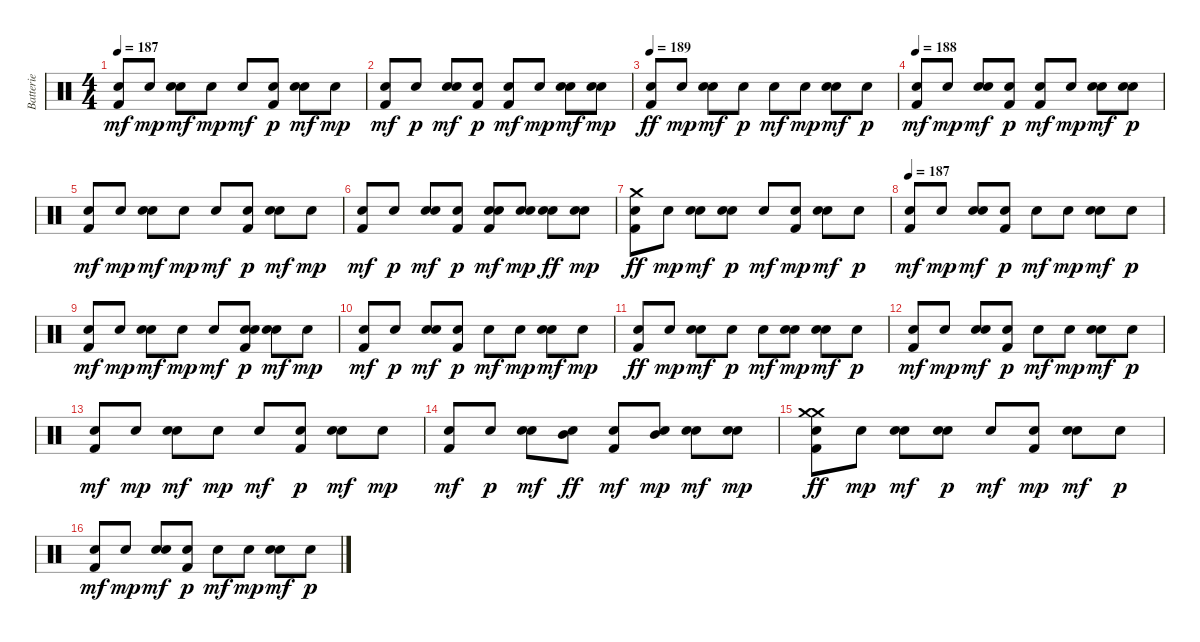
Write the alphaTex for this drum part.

\track ("Batterie            " "Batterie  ") {instrument percussion}
\staff {score}
\articulation defaults
\ts (4 4)
\tempo 187
\clef neutral
\ks c
("Kick (hit) 2" "Snare (hit) 2").8{dy mf} "Snare (hit) 2".8{dy mp} ("Hand Clap (hit)" "Snare (hit) 2").8{dy mf} "Snare (hit) 2".8{dy mp} "Snare (hit) 2".8{dy mf} ("Kick (hit) 2" "Snare (hit) 2").8{dy p} ("Hand Clap (hit)" "Snare (hit) 2").8{dy mf} "Snare (hit) 2".8{dy mp} |
("Kick (hit) 2" "Snare (hit) 2").8{dy mf} "Snare (hit) 2".8{dy p} ("Hand Clap (hit)" "Snare (hit) 2").8{dy mf} ("Kick (hit) 2" "Snare (hit) 2").8{dy p} ("Kick (hit) 2" "Snare (hit) 2").8{dy mf} "Snare (hit) 2".8{dy mp} ("Hand Clap (hit)" "Snare (hit) 2").8{dy mf} ("Hand Clap (hit)" "Snare (hit) 2").8{dy mp} |
\tempo 189
("Kick (hit) 2" "Snare (hit) 2").8{dy ff} "Snare (hit) 2".8{dy mp} ("Hand Clap (hit)" "Snare (hit) 2").8{dy mf} "Snare (hit) 2".8{dy p} "Snare (hit) 2".8{dy mf} "Snare (hit) 2".8{dy mp} ("Hand Clap (hit)" "Snare (hit) 2").8{dy mf} "Snare (hit) 2".8{dy p} |
\tempo 188
("Kick (hit) 2" "Snare (hit) 2").8{dy mf} "Snare (hit) 2".8{dy mp} ("Hand Clap (hit)" "Snare (hit) 2").8{dy mf} ("Kick (hit) 2" "Snare (hit) 2").8{dy p} ("Kick (hit) 2" "Snare (hit) 2").8{dy mf} "Snare (hit) 2".8{dy mp} ("Hand Clap (hit)" "Snare (hit) 2").8{dy mf} ("Hand Clap (hit)" "Snare (hit) 2").8{dy p} |
("Kick (hit) 2" "Snare (hit) 2").8{dy mf} "Snare (hit) 2".8{dy mp} ("Hand Clap (hit)" "Snare (hit) 2").8{dy mf} "Snare (hit) 2".8{dy mp} "Snare (hit) 2".8{dy mf} ("Kick (hit) 2" "Snare (hit) 2").8{dy p} ("Hand Clap (hit)" "Snare (hit) 2").8{dy mf} "Snare (hit) 2".8{dy mp} |
("Kick (hit) 2" "Snare (hit) 2").8{dy mf} "Snare (hit) 2".8{dy p} ("Hand Clap (hit)" "Snare (hit) 2").8{dy mf} ("Kick (hit) 2" "Snare (hit) 2").8{dy p} ("Hand Clap (hit)" "Kick (hit) 2" "Snare (hit) 2").8{dy mf} ("Hand Clap (hit)" "Snare (hit) 2").8{dy mp} ("Hand Clap (hit)" "Snare (hit) 2").8{dy ff} ("Hand Clap (hit)" "Snare (hit) 2").8{dy mp} |
("Crash medium (hit)" "Kick (hit) 2" "Snare (hit) 2").8{dy ff} "Snare (hit) 2".8{dy mp} ("Hand Clap (hit)" "Snare (hit) 2").8{dy mf} ("Hand Clap (hit)" "Snare (hit) 2").8{dy p} "Snare (hit) 2".8{dy mf} ("Kick (hit) 2" "Snare (hit) 2").8{dy mp} ("Hand Clap (hit)" "Snare (hit) 2").8{dy mf} "Snare (hit) 2".8{dy p} |
\tempo 187
("Kick (hit) 2" "Snare (hit) 2").8{dy mf} "Snare (hit) 2".8{dy mp} ("Hand Clap (hit)" "Snare (hit) 2").8{dy mf} ("Kick (hit) 2" "Snare (hit) 2").8{dy p} "Snare (hit) 2".8{dy mf} "Snare (hit) 2".8{dy mp} ("Hand Clap (hit)" "Snare (hit) 2").8{dy mf} "Snare (hit) 2".8{dy p} |
("Kick (hit) 2" "Snare (hit) 2").8{dy mf} "Snare (hit) 2".8{dy mp} ("Hand Clap (hit)" "Snare (hit) 2").8{dy mf} "Snare (hit) 2".8{dy mp} "Snare (hit) 2".8{dy mf} ("Hand Clap (hit)" "Kick (hit) 2" "Snare (hit) 2").8{dy p} ("Hand Clap (hit)" "Snare (hit) 2").8{dy mf} "Snare (hit) 2".8{dy mp} |
("Kick (hit) 2" "Snare (hit) 2").8{dy mf} "Snare (hit) 2".8{dy p} ("Hand Clap (hit)" "Snare (hit) 2").8{dy mf} ("Kick (hit) 2" "Snare (hit) 2").8{dy p} "Snare (hit) 2".8{dy mf} "Snare (hit) 2".8{dy mp} ("Hand Clap (hit)" "Snare (hit) 2").8{dy mf} "Snare (hit) 2".8{dy mp} |
("Kick (hit) 2" "Snare (hit) 2").8{dy ff} "Snare (hit) 2".8{dy mp} ("Hand Clap (hit)" "Snare (hit) 2").8{dy mf} "Snare (hit) 2".8{dy p} "Snare (hit) 2".8{dy mf} ("Hand Clap (hit)" "Snare (hit) 2").8{dy mp} ("Hand Clap (hit)" "Snare (hit) 2").8{dy mf} "Snare (hit) 2".8{dy p} |
("Kick (hit) 2" "Snare (hit) 2").8{dy mf} "Snare (hit) 2".8{dy mp} ("Hand Clap (hit)" "Snare (hit) 2").8{dy mf} ("Kick (hit) 2" "Snare (hit) 2").8{dy p} "Snare (hit) 2".8{dy mf} "Snare (hit) 2".8{dy mp} ("Hand Clap (hit)" "Snare (hit) 2").8{dy mf} "Snare (hit) 2".8{dy p} |
("Kick (hit) 2" "Snare (hit) 2").8{dy mf} "Snare (hit) 2".8{dy mp} ("Hand Clap (hit)" "Snare (hit) 2").8{dy mf} "Snare (hit) 2".8{dy mp} "Snare (hit) 2".8{dy mf} ("Kick (hit) 2" "Snare (hit) 2").8{dy p} ("Hand Clap (hit)" "Snare (hit) 2").8{dy mf} "Snare (hit) 2".8{dy mp} |
("Kick (hit) 2" "Snare (hit) 2").8{dy mf} "Snare (hit) 2".8{dy p} ("Hand Clap (hit)" "Snare (hit) 2").8{dy mf} ("Snare (hit) 2" "Mid Tom (hit)").8{dy ff} ("Kick (hit) 2" "Snare (hit) 2").8{dy mf} ("Mid Tom (hit)" "Snare (hit) 2").8{dy mp} ("Hand Clap (hit)" "Snare (hit) 2").8{dy mf} ("Hand Clap (hit)" "Snare (hit) 2").8{dy mp} |
("Crash medium (hit)" "Crash medium (hit)" "Kick (hit) 2" "Snare (hit) 2").8{dy ff} "Snare (hit) 2".8{dy mp} ("Hand Clap (hit)" "Snare (hit) 2").8{dy mf} ("Hand Clap (hit)" "Snare (hit) 2").8{dy p} "Snare (hit) 2".8{dy mf} ("Kick (hit) 2" "Snare (hit) 2").8{dy mp} ("Hand Clap (hit)" "Snare (hit) 2").8{dy mf} "Snare (hit) 2".8{dy p} |
("Kick (hit) 2" "Snare (hit) 2").8{dy mf} "Snare (hit) 2".8{dy mp} ("Hand Clap (hit)" "Snare (hit) 2").8{dy mf} ("Kick (hit) 2" "Snare (hit) 2").8{dy p} "Snare (hit) 2".8{dy mf} "Snare (hit) 2".8{dy mp} ("Hand Clap (hit)" "Snare (hit) 2").8{dy mf} "Snare (hit) 2".8{dy p}
